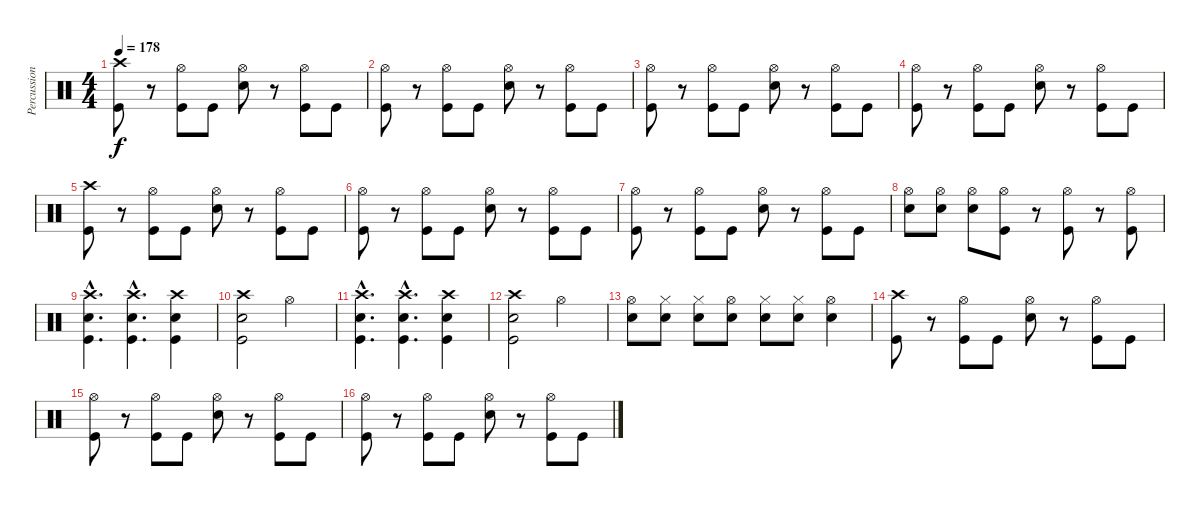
\track ("Percussion" "Percussion") {instrument percussion}
\staff {score}
\articulation defaults
\ts (4 4)
\tempo 178
\clef neutral
\ks c
("Crash high (hit)" "Kick (hit)").8{dy f} r.8 ("Hi-Hat (open)" "Kick (hit)").8 "Kick (hit)".8 ("Hi-Hat (open)" "Snare (hit) 2").8 r.8 ("Hi-Hat (open)" "Kick (hit)").8 "Kick (hit)".8 |
("Hi-Hat (open)" "Kick (hit)").8 r.8 ("Hi-Hat (open)" "Kick (hit)").8 "Kick (hit)".8 ("Hi-Hat (open)" "Snare (hit) 2").8 r.8 ("Hi-Hat (open)" "Kick (hit)").8 "Kick (hit)".8 |
("Hi-Hat (open)" "Kick (hit)").8 r.8 ("Hi-Hat (open)" "Kick (hit)").8 "Kick (hit)".8 ("Hi-Hat (open)" "Snare (hit) 2").8 r.8 ("Hi-Hat (open)" "Kick (hit)").8 "Kick (hit)".8 |
("Hi-Hat (open)" "Kick (hit)").8 r.8 ("Hi-Hat (open)" "Kick (hit)").8 "Kick (hit)".8 ("Hi-Hat (open)" "Snare (hit) 2").8 r.8 ("Hi-Hat (open)" "Kick (hit)").8 "Kick (hit)".8 |
("Crash high (hit)" "Kick (hit)").8 r.8 ("Hi-Hat (open)" "Kick (hit)").8 "Kick (hit)".8 ("Hi-Hat (open)" "Snare (hit) 2").8 r.8 ("Hi-Hat (open)" "Kick (hit)").8 "Kick (hit)".8 |
("Hi-Hat (open)" "Kick (hit)").8 r.8 ("Hi-Hat (open)" "Kick (hit)").8 "Kick (hit)".8 ("Hi-Hat (open)" "Snare (hit) 2").8 r.8 ("Hi-Hat (open)" "Kick (hit)").8 "Kick (hit)".8 |
("Hi-Hat (open)" "Kick (hit)").8 r.8 ("Hi-Hat (open)" "Kick (hit)").8 "Kick (hit)".8 ("Hi-Hat (open)" "Snare (hit) 2").8 r.8 ("Hi-Hat (open)" "Kick (hit)").8 "Kick (hit)".8 |
("Hi-Hat (open)" "Snare (hit) 2").8 ("Hi-Hat (open)" "Snare (hit) 2").8 ("Hi-Hat (open)" "Snare (hit) 2").8 ("Hi-Hat (open)" "Kick (hit)").8 r.8 ("Hi-Hat (open)" "Kick (hit)").8 r.8 ("Hi-Hat (open)" "Kick (hit)").8 |
("Crash high (hit)"{hac} "Kick (hit)"{hac} "Snare (hit) 2"{hac}).4{d} ("Crash high (hit)"{hac} "Kick (hit)"{hac} "Snare (hit) 2"{hac}).4{d} ("Crash high (hit)" "Kick (hit)" "Snare (hit) 2").4 |
("Crash high (hit)" "Kick (hit)" "Snare (hit) 2").2 "Hi-Hat (open)".2 |
("Crash high (hit)"{hac} "Kick (hit)"{hac} "Snare (hit) 2"{hac}).4{d} ("Crash high (hit)"{hac} "Kick (hit)"{hac} "Snare (hit) 2"{hac}).4{d} ("Crash high (hit)" "Kick (hit)" "Snare (hit) 2").4 |
("Crash high (hit)" "Kick (hit)" "Snare (hit) 2").2 "Hi-Hat (open)".2 |
("Hi-Hat (open)" "Snare (hit) 2").8 ("Hi-Hat (closed)" "Snare (hit) 2").8 ("Hi-Hat (closed)" "Snare (hit) 2").8 ("Hi-Hat (open)" "Snare (hit) 2").8 ("Hi-Hat (closed)" "Snare (hit) 2").8 ("Hi-Hat (closed)" "Snare (hit) 2").8 ("Hi-Hat (open)" "Snare (hit) 2").4 |
("Crash high (hit)" "Kick (hit)").8 r.8 ("Hi-Hat (open)" "Kick (hit)").8 "Kick (hit)".8 ("Hi-Hat (open)" "Snare (hit) 2").8 r.8 ("Hi-Hat (open)" "Kick (hit)").8 "Kick (hit)".8 |
("Hi-Hat (open)" "Kick (hit)").8 r.8 ("Hi-Hat (open)" "Kick (hit)").8 "Kick (hit)".8 ("Hi-Hat (open)" "Snare (hit) 2").8 r.8 ("Hi-Hat (open)" "Kick (hit)").8 "Kick (hit)".8 |
("Hi-Hat (open)" "Kick (hit)").8 r.8 ("Hi-Hat (open)" "Kick (hit)").8 "Kick (hit)".8 ("Hi-Hat (open)" "Snare (hit) 2").8 r.8 ("Hi-Hat (open)" "Kick (hit)").8 "Kick (hit)".8
